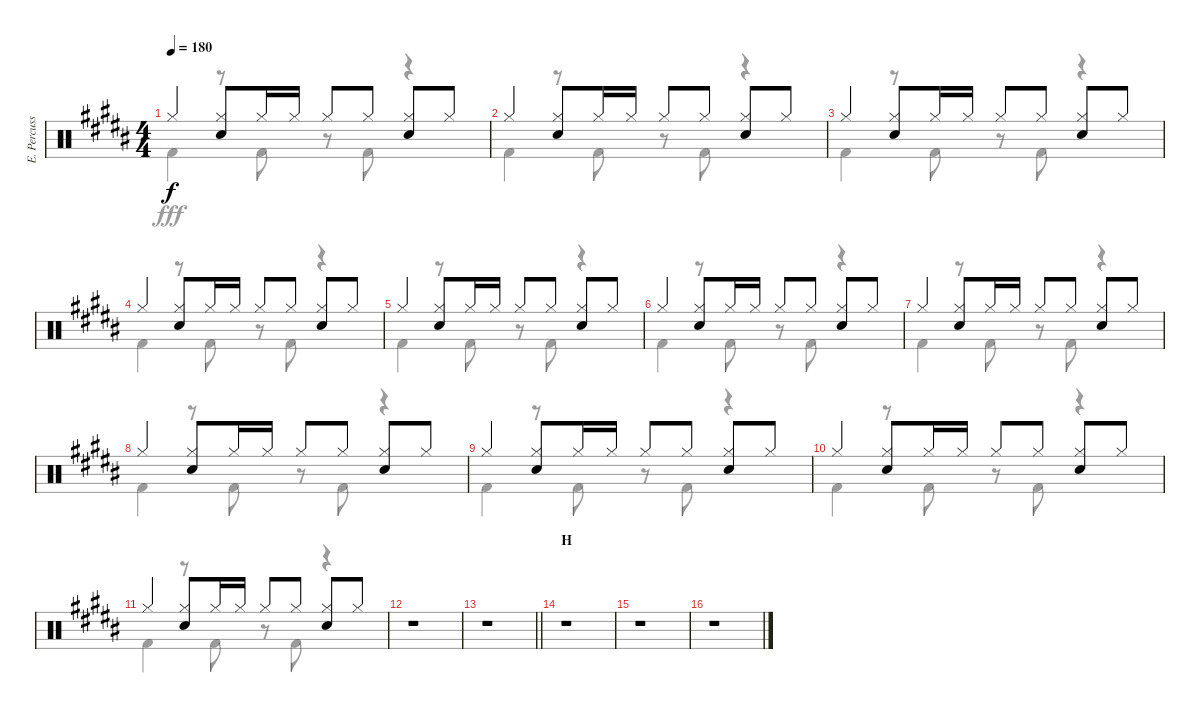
\track ("E. Percussion" "E. Percuss") {instrument percussion}
\staff {score}
\articulation defaults
\voice
\ts (4 4)
\tempo 180
\clef neutral
\ks b "Hi-Hat (closed)".4{dy f}
("Hi-Hat (closed)" "Electric Snare (hit)").8 "Hi-Hat (closed)".16 "Hi-Hat (closed)".16 "Hi-Hat (closed)".8 "Hi-Hat (closed)".8 ("Hi-Hat (closed)" "Electric Snare (hit)").8 "Hi-Hat (closed)".8 |
"Hi-Hat (closed)".4 ("Hi-Hat (closed)" "Electric Snare (hit)").8 "Hi-Hat (closed)".16 "Hi-Hat (closed)".16 "Hi-Hat (closed)".8 "Hi-Hat (closed)".8 ("Hi-Hat (closed)" "Electric Snare (hit)").8 "Hi-Hat (closed)".8 |
"Hi-Hat (closed)".4 ("Hi-Hat (closed)" "Electric Snare (hit)").8 "Hi-Hat (closed)".16 "Hi-Hat (closed)".16 "Hi-Hat (closed)".8 "Hi-Hat (closed)".8 ("Hi-Hat (closed)" "Electric Snare (hit)").8 "Hi-Hat (closed)".8 |
"Hi-Hat (closed)".4 ("Hi-Hat (closed)" "Electric Snare (hit)").8 "Hi-Hat (closed)".16 "Hi-Hat (closed)".16 "Hi-Hat (closed)".8 "Hi-Hat (closed)".8 ("Hi-Hat (closed)" "Electric Snare (hit)").8 "Hi-Hat (closed)".8 |
"Hi-Hat (closed)".4 ("Hi-Hat (closed)" "Electric Snare (hit)").8 "Hi-Hat (closed)".16 "Hi-Hat (closed)".16 "Hi-Hat (closed)".8 "Hi-Hat (closed)".8 ("Hi-Hat (closed)" "Electric Snare (hit)").8 "Hi-Hat (closed)".8 |
"Hi-Hat (closed)".4 ("Hi-Hat (closed)" "Electric Snare (hit)").8 "Hi-Hat (closed)".16 "Hi-Hat (closed)".16 "Hi-Hat (closed)".8 "Hi-Hat (closed)".8 ("Hi-Hat (closed)" "Electric Snare (hit)").8 "Hi-Hat (closed)".8 |
"Hi-Hat (closed)".4 ("Hi-Hat (closed)" "Electric Snare (hit)").8 "Hi-Hat (closed)".16 "Hi-Hat (closed)".16 "Hi-Hat (closed)".8 "Hi-Hat (closed)".8 ("Hi-Hat (closed)" "Electric Snare (hit)").8 "Hi-Hat (closed)".8 |
"Hi-Hat (closed)".4 ("Hi-Hat (closed)" "Electric Snare (hit)").8 "Hi-Hat (closed)".16 "Hi-Hat (closed)".16 "Hi-Hat (closed)".8 "Hi-Hat (closed)".8 ("Hi-Hat (closed)" "Electric Snare (hit)").8 "Hi-Hat (closed)".8 |
"Hi-Hat (closed)".4 ("Hi-Hat (closed)" "Electric Snare (hit)").8 "Hi-Hat (closed)".16 "Hi-Hat (closed)".16 "Hi-Hat (closed)".8 "Hi-Hat (closed)".8 ("Hi-Hat (closed)" "Electric Snare (hit)").8 "Hi-Hat (closed)".8 |
"Hi-Hat (closed)".4 ("Hi-Hat (closed)" "Electric Snare (hit)").8 "Hi-Hat (closed)".16 "Hi-Hat (closed)".16 "Hi-Hat (closed)".8 "Hi-Hat (closed)".8 ("Hi-Hat (closed)" "Electric Snare (hit)").8 "Hi-Hat (closed)".8 |
"Hi-Hat (closed)".4 ("Hi-Hat (closed)" "Electric Snare (hit)").8 "Hi-Hat (closed)".16 "Hi-Hat (closed)".16 "Hi-Hat (closed)".8 "Hi-Hat (closed)".8 ("Hi-Hat (closed)" "Electric Snare (hit)").8 "Hi-Hat (closed)".8 |
r.1 |
\barLineRight lightlight
r.1 |
\section ("" "H")
r.1 |
r.1 |
r.1
\voice
\clef neutral
\ottava regular
\simile none
\ks b "Kick (hit) 2".4{dy fff}
r.8 "Kick (hit) 2".8 r.8 "Kick (hit) 2".8 r.4 |
"Kick (hit) 2".4 r.8 "Kick (hit) 2".8 r.8 "Kick (hit) 2".8 r.4 |
"Kick (hit) 2".4 r.8 "Kick (hit) 2".8 r.8 "Kick (hit) 2".8 r.4 |
"Kick (hit) 2".4 r.8 "Kick (hit) 2".8 r.8 "Kick (hit) 2".8 r.4 |
"Kick (hit) 2".4 r.8 "Kick (hit) 2".8 r.8 "Kick (hit) 2".8 r.4 |
"Kick (hit) 2".4 r.8 "Kick (hit) 2".8 r.8 "Kick (hit) 2".8 r.4 |
"Kick (hit) 2".4 r.8 "Kick (hit) 2".8 r.8 "Kick (hit) 2".8 r.4 |
"Kick (hit) 2".4 r.8 "Kick (hit) 2".8 r.8 "Kick (hit) 2".8 r.4 |
"Kick (hit) 2".4 r.8 "Kick (hit) 2".8 r.8 "Kick (hit) 2".8 r.4 |
"Kick (hit) 2".4 r.8 "Kick (hit) 2".8 r.8 "Kick (hit) 2".8 r.4 |
"Kick (hit) 2".4 r.8 "Kick (hit) 2".8 r.8 "Kick (hit) 2".8 r.4 |
|
\barLineRight lightlight
|
|
|
